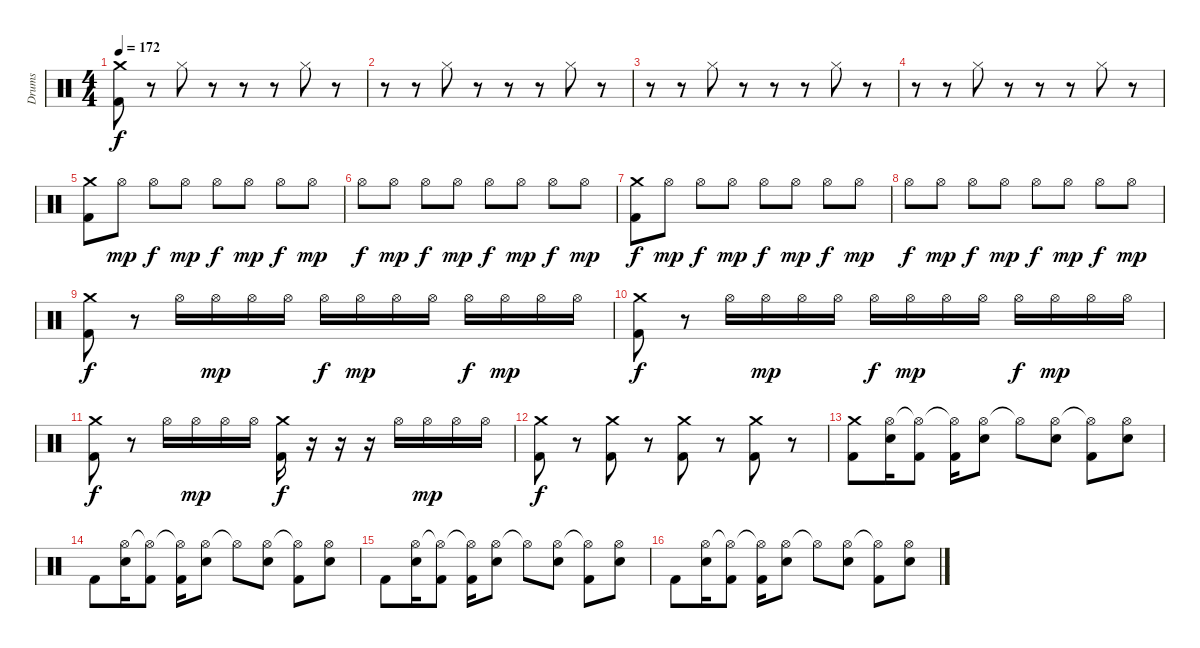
\track ("Drums" "Drums") {instrument percussion}
\staff {score}
\articulation defaults
\ts (4 4)
\tempo 172
\clef neutral
\ks c
("Crash medium (hit)" "Kick (hit) 2").8{dy f} r.8 "Hi-Hat (closed)".8 r.8 r.8 r.8 "Hi-Hat (closed)".8 r.8 |
r.8 r.8 "Hi-Hat (closed)".8 r.8 r.8 r.8 "Hi-Hat (closed)".8 r.8 |
r.8 r.8 "Hi-Hat (closed)".8 r.8 r.8 r.8 "Hi-Hat (closed)".8 r.8 |
r.8 r.8 "Hi-Hat (closed)".8 r.8 r.8 r.8 "Hi-Hat (closed)".8 r.8 |
("Crash medium (hit)" "Kick (hit) 2").8 "Hi-Hat (open)".8{dy mp} "Hi-Hat (open)".8{dy f} "Hi-Hat (open)".8{dy mp} "Hi-Hat (open)".8{dy f} "Hi-Hat (open)".8{dy mp} "Hi-Hat (open)".8{dy f} "Hi-Hat (open)".8{dy mp} |
"Hi-Hat (open)".8{dy f} "Hi-Hat (open)".8{dy mp} "Hi-Hat (open)".8{dy f} "Hi-Hat (open)".8{dy mp} "Hi-Hat (open)".8{dy f} "Hi-Hat (open)".8{dy mp} "Hi-Hat (open)".8{dy f} "Hi-Hat (open)".8{dy mp} |
("Crash medium (hit)" "Kick (hit) 2").8{dy f} "Hi-Hat (open)".8{dy mp} "Hi-Hat (open)".8{dy f} "Hi-Hat (open)".8{dy mp} "Hi-Hat (open)".8{dy f} "Hi-Hat (open)".8{dy mp} "Hi-Hat (open)".8{dy f} "Hi-Hat (open)".8{dy mp} |
"Hi-Hat (open)".8{dy f} "Hi-Hat (open)".8{dy mp} "Hi-Hat (open)".8{dy f} "Hi-Hat (open)".8{dy mp} "Hi-Hat (open)".8{dy f} "Hi-Hat (open)".8{dy mp} "Hi-Hat (open)".8{dy f} "Hi-Hat (open)".8{dy mp} |
("Crash medium (hit)" "Kick (hit) 2").8{dy f} r.8 "Hi-Hat (open)".16 "Hi-Hat (open)".16{dy mp} "Hi-Hat (open)".16 "Hi-Hat (open)".16 "Hi-Hat (open)".16{dy f} "Hi-Hat (open)".16{dy mp} "Hi-Hat (open)".16 "Hi-Hat (open)".16 "Hi-Hat (open)".16{dy f} "Hi-Hat (open)".16{dy mp} "Hi-Hat (open)".16 "Hi-Hat (open)".16 |
("Crash medium (hit)" "Kick (hit) 2").8{dy f} r.8 "Hi-Hat (open)".16 "Hi-Hat (open)".16{dy mp} "Hi-Hat (open)".16 "Hi-Hat (open)".16 "Hi-Hat (open)".16{dy f} "Hi-Hat (open)".16{dy mp} "Hi-Hat (open)".16 "Hi-Hat (open)".16 "Hi-Hat (open)".16{dy f} "Hi-Hat (open)".16{dy mp} "Hi-Hat (open)".16 "Hi-Hat (open)".16 |
("Crash medium (hit)" "Kick (hit) 2").8{dy f} r.8 "Hi-Hat (open)".16 "Hi-Hat (open)".16{dy mp} "Hi-Hat (open)".16 "Hi-Hat (open)".16 ("Crash medium (hit)" "Kick (hit) 2").16{dy f} r.16 r.16 r.16 "Hi-Hat (open)".16 "Hi-Hat (open)".16{dy mp} "Hi-Hat (open)".16 "Hi-Hat (open)".16 |
("Crash medium (hit)" "Kick (hit) 2").8{dy f} r.8 ("Crash medium (hit)" "Kick (hit) 2").8 r.8 ("Crash medium (hit)" "Kick (hit) 2").8 r.8 ("Crash medium (hit)" "Kick (hit) 2").8 r.8 |
("Crash medium (hit)" "Kick (hit) 2").8 ("Hi-Hat (open)" "Electric Snare (hit)").16 ("Hi-Hat (open)"{t} "Kick (hit) 2").8 ("Hi-Hat (open)"{t} "Kick (hit) 2").16 ("Hi-Hat (open)" "Electric Snare (hit)").8 "Hi-Hat (open)"{t}.8 ("Hi-Hat (open)" "Electric Snare (hit)").8 ("Hi-Hat (open)"{t} "Kick (hit) 2").8 ("Hi-Hat (open)" "Electric Snare (hit)").8 |
"Kick (hit) 2".8 ("Hi-Hat (open)" "Electric Snare (hit)").16 ("Hi-Hat (open)"{t} "Kick (hit) 2").8 ("Hi-Hat (open)"{t} "Kick (hit) 2").16 ("Hi-Hat (open)" "Electric Snare (hit)").8 "Hi-Hat (open)"{t}.8 ("Hi-Hat (open)" "Electric Snare (hit)").8 ("Hi-Hat (open)"{t} "Kick (hit) 2").8 ("Hi-Hat (open)" "Electric Snare (hit)").8 |
"Kick (hit) 2".8 ("Hi-Hat (open)" "Electric Snare (hit)").16 ("Hi-Hat (open)"{t} "Kick (hit) 2").8 ("Hi-Hat (open)"{t} "Kick (hit) 2").16 ("Hi-Hat (open)" "Electric Snare (hit)").8 "Hi-Hat (open)"{t}.8 ("Hi-Hat (open)" "Electric Snare (hit)").8 ("Hi-Hat (open)"{t} "Kick (hit) 2").8 ("Hi-Hat (open)" "Electric Snare (hit)").8 |
"Kick (hit) 2".8 ("Hi-Hat (open)" "Electric Snare (hit)").16 ("Hi-Hat (open)"{t} "Kick (hit) 2").8 ("Hi-Hat (open)"{t} "Kick (hit) 2").16 ("Hi-Hat (open)" "Electric Snare (hit)").8 "Hi-Hat (open)"{t}.8 ("Hi-Hat (open)" "Electric Snare (hit)").8 ("Hi-Hat (open)"{t} "Kick (hit) 2").8 ("Hi-Hat (open)" "Electric Snare (hit)").8
